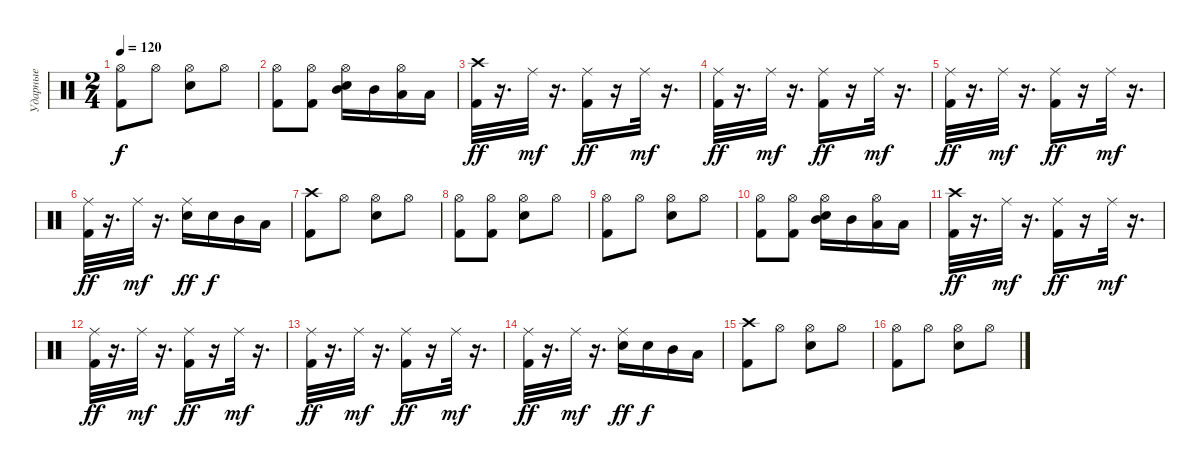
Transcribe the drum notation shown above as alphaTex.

\track ("Ударные" "Ударные") {instrument percussion}
\staff {score}
\articulation defaults
\ts (2 4)
\tempo 120
\clef neutral
\ks c
("Hi-Hat (open)" "Kick (hit) 2").8{dy f} "Hi-Hat (open)".8 ("Hi-Hat (open)" "Electric Snare (hit)").8 "Hi-Hat (open)".8 |
("Hi-Hat (open)" "Kick (hit) 2").8 ("Hi-Hat (open)" "Kick (hit) 2").8 ("Hi-Hat (open)" "Mid Tom (hit)" "Electric Snare (hit)").16 "Mid Tom (hit)".16 ("Hi-Hat (open)" "Low Tom (hit)").16 "Low Tom (hit)".16 |
("Crash high (hit)" "Kick (hit) 2").32{dy ff} r.16{d} "Ride (middle)".32{dy mf} r.16{d} ("Ride (middle)" "Kick (hit) 2").16{dy ff} r.16 "Ride (middle)".32{dy mf} r.16{d} |
("Ride (middle)" "Kick (hit) 2").32{dy ff} r.16{d} "Ride (middle)".32{dy mf} r.16{d} ("Ride (middle)" "Kick (hit) 2").16{dy ff} r.16 "Ride (middle)".32{dy mf} r.16{d} |
("Ride (middle)" "Kick (hit) 2").32{dy ff} r.16{d} "Ride (middle)".32{dy mf} r.16{d} ("Ride (middle)" "Kick (hit) 2").16{dy ff} r.16 "Ride (middle)".32{dy mf} r.16{d} |
("Ride (middle)" "Kick (hit) 2").32{dy ff} r.16{d} "Ride (middle)".32{dy mf} r.16{d} ("Ride (middle)" "Electric Snare (hit)").16{dy ff} "Electric Snare (hit)".16{dy f} "Mid Tom (hit)".16 "Low Tom (hit)".16 |
("Crash high (hit)" "Kick (hit) 2").8 "Hi-Hat (open)".8 ("Hi-Hat (open)" "Electric Snare (hit)").8 "Hi-Hat (open)".8 |
("Hi-Hat (open)" "Kick (hit) 2").8 ("Hi-Hat (open)" "Kick (hit) 2").8 ("Hi-Hat (open)" "Electric Snare (hit)").8 "Hi-Hat (open)".8 |
("Hi-Hat (open)" "Kick (hit) 2").8 "Hi-Hat (open)".8 ("Hi-Hat (open)" "Electric Snare (hit)").8 "Hi-Hat (open)".8 |
("Hi-Hat (open)" "Kick (hit) 2").8 ("Hi-Hat (open)" "Kick (hit) 2").8 ("Hi-Hat (open)" "Mid Tom (hit)" "Electric Snare (hit)").16 "Mid Tom (hit)".16 ("Hi-Hat (open)" "Low Tom (hit)").16 "Low Tom (hit)".16 |
("Crash high (hit)" "Kick (hit) 2").32{dy ff} r.16{d} "Ride (middle)".32{dy mf} r.16{d} ("Ride (middle)" "Kick (hit) 2").16{dy ff} r.16 "Ride (middle)".32{dy mf} r.16{d} |
("Ride (middle)" "Kick (hit) 2").32{dy ff} r.16{d} "Ride (middle)".32{dy mf} r.16{d} ("Ride (middle)" "Kick (hit) 2").16{dy ff} r.16 "Ride (middle)".32{dy mf} r.16{d} |
("Ride (middle)" "Kick (hit) 2").32{dy ff} r.16{d} "Ride (middle)".32{dy mf} r.16{d} ("Ride (middle)" "Kick (hit) 2").16{dy ff} r.16 "Ride (middle)".32{dy mf} r.16{d} |
("Ride (middle)" "Kick (hit) 2").32{dy ff} r.16{d} "Ride (middle)".32{dy mf} r.16{d} ("Ride (middle)" "Electric Snare (hit)").16{dy ff} "Electric Snare (hit)".16{dy f} "Mid Tom (hit)".16 "Low Tom (hit)".16 |
("Crash high (hit)" "Kick (hit) 2").8 "Hi-Hat (open)".8 ("Hi-Hat (open)" "Electric Snare (hit)").8 "Hi-Hat (open)".8 |
("Hi-Hat (open)" "Kick (hit) 2").8 "Hi-Hat (open)".8 ("Hi-Hat (open)" "Electric Snare (hit)").8 "Hi-Hat (open)".8
